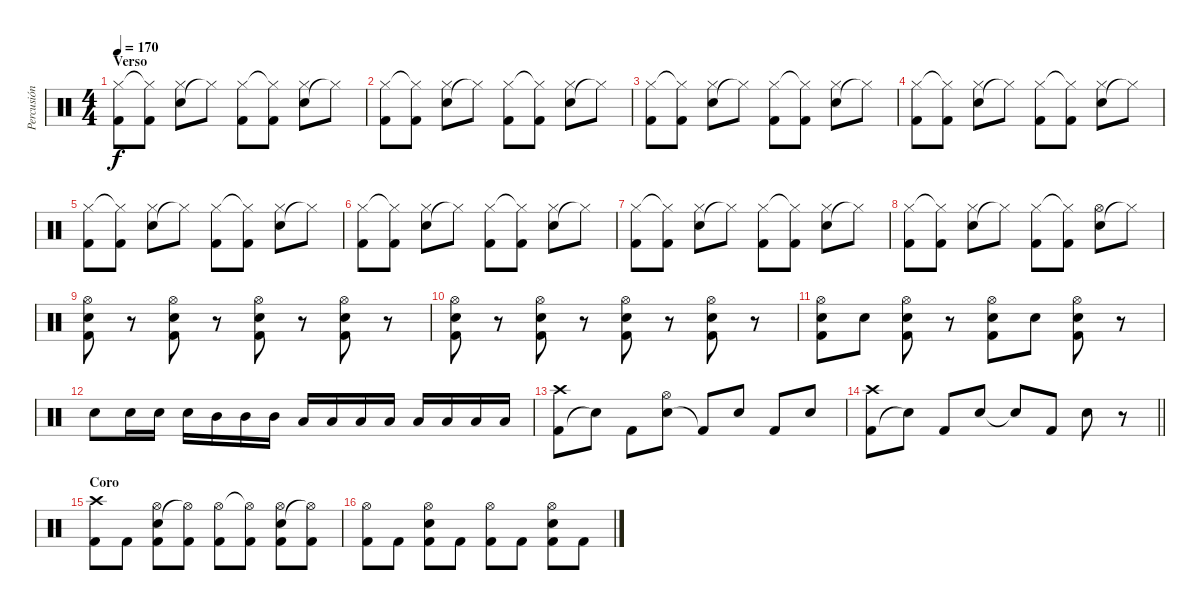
\track ("Percusión" "Percusión") {instrument percussion}
\staff {score}
\articulation defaults
\ts (4 4)
\section ("" "Verso")
\tempo 170
\clef neutral
\ks c
("Kick (hit) 2" "Hi-Hat (closed)").8{dy f} ("Kick (hit) 2" "Hi-Hat (closed)"{t}).8 ("Snare (hit) 2" "Hi-Hat (closed)").8 "Hi-Hat (closed)"{t}.8 ("Kick (hit) 2" "Hi-Hat (closed)").8 ("Kick (hit) 2" "Hi-Hat (closed)"{t}).8 ("Snare (hit) 2" "Hi-Hat (closed)").8 "Hi-Hat (closed)"{t}.8 |
("Kick (hit) 2" "Hi-Hat (closed)").8 ("Kick (hit) 2" "Hi-Hat (closed)"{t}).8 ("Snare (hit) 2" "Hi-Hat (closed)").8 "Hi-Hat (closed)"{t}.8 ("Kick (hit) 2" "Hi-Hat (closed)").8 ("Kick (hit) 2" "Hi-Hat (closed)"{t}).8 ("Snare (hit) 2" "Hi-Hat (closed)").8 "Hi-Hat (closed)"{t}.8 |
("Kick (hit) 2" "Hi-Hat (closed)").8 ("Kick (hit) 2" "Hi-Hat (closed)"{t}).8 ("Snare (hit) 2" "Hi-Hat (closed)").8 "Hi-Hat (closed)"{t}.8 ("Kick (hit) 2" "Hi-Hat (closed)").8 ("Kick (hit) 2" "Hi-Hat (closed)"{t}).8 ("Snare (hit) 2" "Hi-Hat (closed)").8 "Hi-Hat (closed)"{t}.8 |
("Kick (hit) 2" "Hi-Hat (closed)").8 ("Kick (hit) 2" "Hi-Hat (closed)"{t}).8 ("Snare (hit) 2" "Hi-Hat (closed)").8 "Hi-Hat (closed)"{t}.8 ("Kick (hit) 2" "Hi-Hat (closed)").8 ("Kick (hit) 2" "Hi-Hat (closed)"{t}).8 ("Snare (hit) 2" "Hi-Hat (closed)").8 "Hi-Hat (closed)"{t}.8 |
("Kick (hit) 2" "Hi-Hat (closed)").8 ("Kick (hit) 2" "Hi-Hat (closed)"{t}).8 ("Snare (hit) 2" "Hi-Hat (closed)").8 "Hi-Hat (closed)"{t}.8 ("Kick (hit) 2" "Hi-Hat (closed)").8 ("Kick (hit) 2" "Hi-Hat (closed)"{t}).8 ("Snare (hit) 2" "Hi-Hat (closed)").8 "Hi-Hat (closed)"{t}.8 |
("Kick (hit) 2" "Hi-Hat (closed)").8 ("Kick (hit) 2" "Hi-Hat (closed)"{t}).8 ("Snare (hit) 2" "Hi-Hat (closed)").8 "Hi-Hat (closed)"{t}.8 ("Kick (hit) 2" "Hi-Hat (closed)").8 ("Kick (hit) 2" "Hi-Hat (closed)"{t}).8 ("Snare (hit) 2" "Hi-Hat (closed)").8 "Hi-Hat (closed)"{t}.8 |
("Kick (hit) 2" "Hi-Hat (closed)").8 ("Kick (hit) 2" "Hi-Hat (closed)"{t}).8 ("Snare (hit) 2" "Hi-Hat (closed)").8 "Hi-Hat (closed)"{t}.8 ("Kick (hit) 2" "Hi-Hat (closed)").8 ("Kick (hit) 2" "Hi-Hat (closed)"{t}).8 ("Snare (hit) 2" "Hi-Hat (closed)").8 "Hi-Hat (closed)"{t}.8 |
("Kick (hit) 2" "Hi-Hat (closed)").8 ("Kick (hit) 2" "Hi-Hat (closed)"{t}).8 ("Snare (hit) 2" "Hi-Hat (closed)").8 "Hi-Hat (closed)"{t}.8 ("Kick (hit) 2" "Hi-Hat (closed)").8 ("Kick (hit) 2" "Hi-Hat (closed)"{t}).8 ("Snare (hit) 2" "Hi-Hat (open)").8 "Hi-Hat (closed)"{t}.8 |
("Kick (hit) 2" "Hi-Hat (open)" "Snare (hit) 2").8 r.8 ("Kick (hit) 2" "Hi-Hat (open)" "Snare (hit) 2").8 r.8 ("Kick (hit) 2" "Hi-Hat (open)" "Snare (hit) 2").8 r.8 ("Kick (hit) 2" "Hi-Hat (open)" "Snare (hit) 2").8 r.8 |
("Kick (hit) 2" "Hi-Hat (open)" "Snare (hit) 2").8 r.8 ("Kick (hit) 2" "Hi-Hat (open)" "Snare (hit) 2").8 r.8 ("Kick (hit) 2" "Hi-Hat (open)" "Snare (hit) 2").8 r.8 ("Kick (hit) 2" "Hi-Hat (open)" "Snare (hit) 2").8 r.8 |
("Kick (hit) 2" "Hi-Hat (open)" "Snare (hit) 2").8 "Snare (hit) 2".8 ("Kick (hit) 2" "Hi-Hat (open)" "Snare (hit) 2").8 r.8 ("Kick (hit) 2" "Hi-Hat (open)" "Snare (hit) 2").8 "Snare (hit) 2".8 ("Kick (hit) 2" "Hi-Hat (open)" "Snare (hit) 2").8 r.8 |
"Snare (hit) 2".8 "Snare (hit) 2".16 "Snare (hit) 2".16 "Snare (hit) 2".16 "Mid Tom (hit)".16 "Mid Tom (hit)".16 "Mid Tom (hit)".16 "Low Tom (hit)".16 "Low Tom (hit)".16 "Low Tom (hit)".16 "Low Floor Tom (hit)".16 "Low Floor Tom (hit)".16 "Low Floor Tom (hit)".16 "Low Floor Tom (hit)".16 "Low Floor Tom (hit)".16 |
("Kick (hit) 2" "Crash high (hit)").8 "Snare (hit)"{t}.8 "Kick (hit) 2".8 ("Snare (hit) 2" "Hi-Hat (open)").8 "Kick (hit) 2"{t}.8 "Snare (hit) 2".8 "Kick (hit) 2".8 "Snare (hit) 2".8 |
\barLineRight lightlight
("Kick (hit) 2" "Crash high (hit)").8 "Snare (hit)"{t}.8 "Kick (hit) 2".8 "Snare (hit) 2".8 "Snare (hit)"{t}.8 "Kick (hit) 2".8 "Snare (hit) 2".8 r.8 |
\section ("" "Coro")
("Kick (hit) 2" "Crash high (hit)").8 "Kick (hit) 2".8 ("Kick (hit) 2" "Snare (hit) 2" "Hi-Hat (open)").8 ("Kick (hit) 2" "Hi-Hat (open)"{t}).8 ("Kick (hit) 2" "Hi-Hat (open)").8 ("Kick (hit) 2" "Hi-Hat (open)"{t}).8 ("Kick (hit) 2" "Snare (hit) 2" "Hi-Hat (open)").8 ("Kick (hit) 2" "Hi-Hat (open)"{t}).8 |
("Kick (hit) 2" "Hi-Hat (open)").8 "Kick (hit) 2".8 ("Kick (hit) 2" "Snare (hit) 2" "Hi-Hat (open)").8 "Kick (hit) 2".8 ("Kick (hit) 2" "Hi-Hat (open)").8 "Kick (hit) 2".8 ("Kick (hit) 2" "Snare (hit) 2" "Hi-Hat (open)").8 "Kick (hit) 2".8
